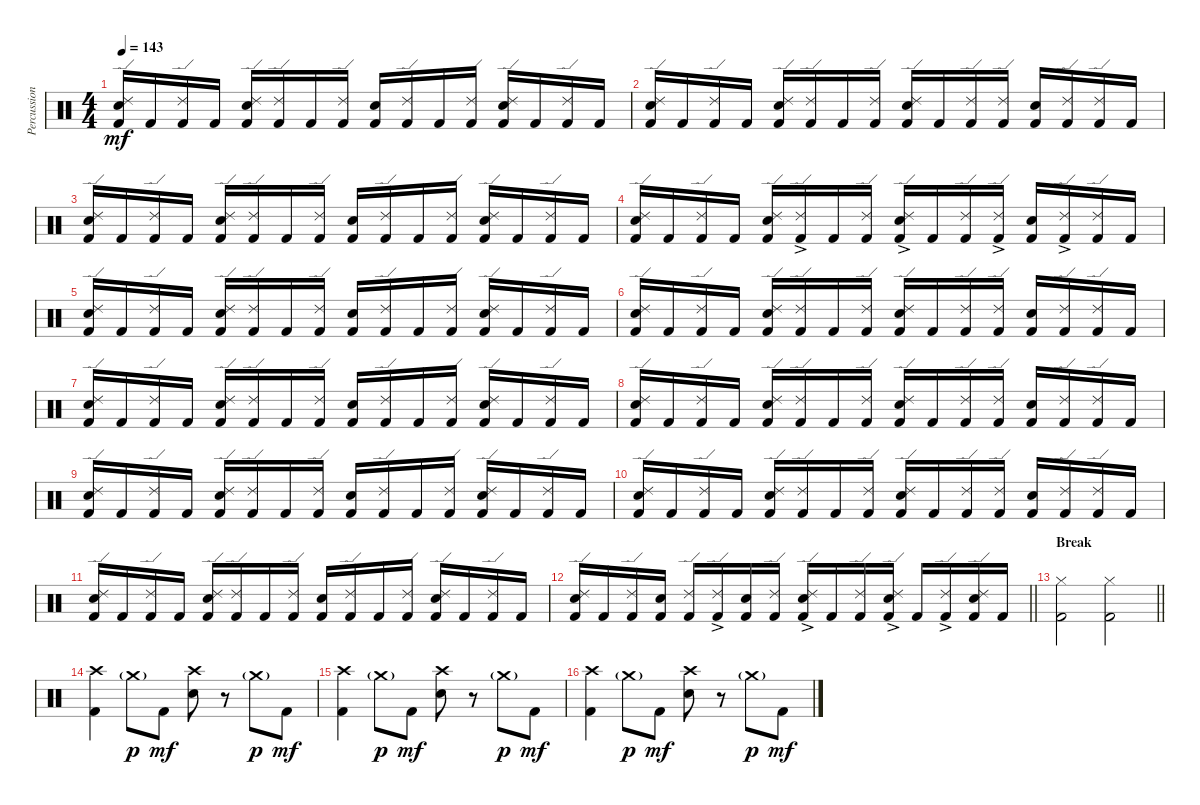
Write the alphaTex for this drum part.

\track ("Percussion" "Percussion") {instrument percussion}
\staff {score}
\articulation defaults
\ts (4 4)
\tempo 143
\clef neutral
\ks c
("Ride (edge) 2" "Electric Snare (hit)" "Kick (hit) 2").16{dy mf} "Kick (hit) 2".16 ("Ride (edge) 2" "Kick (hit) 2").16 "Kick (hit) 2".16 ("Ride (edge) 2" "Electric Snare (hit)" "Kick (hit) 2").16 ("Ride (edge) 2" "Kick (hit) 2").16 "Kick (hit) 2".16 ("Ride (edge) 2" "Kick (hit) 2").16 ("Electric Snare (hit)" "Kick (hit) 2").16 ("Ride (edge) 2" "Kick (hit) 2").16 "Kick (hit) 2".16 ("Ride (edge) 2" "Kick (hit) 2").16 ("Ride (edge) 2" "Electric Snare (hit)" "Kick (hit) 2").16 "Kick (hit) 2".16 ("Ride (edge) 2" "Kick (hit) 2").16 "Kick (hit) 2".16 |
("Ride (edge) 2" "Electric Snare (hit)" "Kick (hit) 2").16 "Kick (hit) 2".16 ("Ride (edge) 2" "Kick (hit) 2").16 "Kick (hit) 2".16 ("Ride (edge) 2" "Electric Snare (hit)" "Kick (hit) 2").16 ("Ride (edge) 2" "Kick (hit) 2").16 "Kick (hit) 2".16 ("Ride (edge) 2" "Kick (hit) 2").16 ("Ride (edge) 2" "Electric Snare (hit)" "Kick (hit) 2").16 "Kick (hit) 2".16 ("Ride (edge) 2" "Kick (hit) 2").16 ("Ride (edge) 2" "Kick (hit) 2").16 ("Electric Snare (hit)" "Kick (hit) 2").16 ("Ride (edge) 2" "Kick (hit) 2").16 ("Ride (edge) 2" "Kick (hit) 2").16 "Kick (hit) 2".16 |
("Ride (edge) 2" "Electric Snare (hit)" "Kick (hit) 2").16 "Kick (hit) 2".16 ("Ride (edge) 2" "Kick (hit) 2").16 "Kick (hit) 2".16 ("Ride (edge) 2" "Electric Snare (hit)" "Kick (hit) 2").16 ("Ride (edge) 2" "Kick (hit) 2").16 "Kick (hit) 2".16 ("Ride (edge) 2" "Kick (hit) 2").16 ("Electric Snare (hit)" "Kick (hit) 2").16 ("Ride (edge) 2" "Kick (hit) 2").16 "Kick (hit) 2".16 ("Ride (edge) 2" "Kick (hit) 2").16 ("Ride (edge) 2" "Electric Snare (hit)" "Kick (hit) 2").16 "Kick (hit) 2".16 ("Ride (edge) 2" "Kick (hit) 2").16 "Kick (hit) 2".16 |
("Ride (edge) 2" "Electric Snare (hit)" "Kick (hit) 2").16 "Kick (hit) 2".16 ("Ride (edge) 2" "Kick (hit) 2").16 "Kick (hit) 2".16 ("Ride (edge) 2" "Electric Snare (hit)" "Kick (hit) 2").16 ("Ride (edge) 2"{ac} "Kick (hit) 2").16 "Kick (hit) 2".16 ("Ride (edge) 2" "Kick (hit) 2").16 ("Ride (edge) 2"{ac} "Electric Snare (hit)" "Kick (hit) 2").16 "Kick (hit) 2".16 ("Ride (edge) 2" "Kick (hit) 2").16 ("Ride (edge) 2"{ac} "Kick (hit) 2").16 ("Electric Snare (hit)" "Kick (hit) 2").16 ("Ride (edge) 2"{ac} "Kick (hit) 2").16 ("Ride (edge) 2" "Kick (hit) 2").16 "Kick (hit) 2".16 |
("Ride (edge) 2" "Electric Snare (hit)" "Kick (hit) 2").16 "Kick (hit) 2".16 ("Ride (edge) 2" "Kick (hit) 2").16 "Kick (hit) 2".16 ("Ride (edge) 2" "Electric Snare (hit)" "Kick (hit) 2").16 ("Ride (edge) 2" "Kick (hit) 2").16 "Kick (hit) 2".16 ("Ride (edge) 2" "Kick (hit) 2").16 ("Electric Snare (hit)" "Kick (hit) 2").16 ("Ride (edge) 2" "Kick (hit) 2").16 "Kick (hit) 2".16 ("Ride (edge) 2" "Kick (hit) 2").16 ("Ride (edge) 2" "Electric Snare (hit)" "Kick (hit) 2").16 "Kick (hit) 2".16 ("Ride (edge) 2" "Kick (hit) 2").16 "Kick (hit) 2".16 |
("Ride (edge) 2" "Electric Snare (hit)" "Kick (hit) 2").16 "Kick (hit) 2".16 ("Ride (edge) 2" "Kick (hit) 2").16 "Kick (hit) 2".16 ("Ride (edge) 2" "Electric Snare (hit)" "Kick (hit) 2").16 ("Ride (edge) 2" "Kick (hit) 2").16 "Kick (hit) 2".16 ("Ride (edge) 2" "Kick (hit) 2").16 ("Ride (edge) 2" "Electric Snare (hit)" "Kick (hit) 2").16 "Kick (hit) 2".16 ("Ride (edge) 2" "Kick (hit) 2").16 ("Ride (edge) 2" "Kick (hit) 2").16 ("Electric Snare (hit)" "Kick (hit) 2").16 ("Ride (edge) 2" "Kick (hit) 2").16 ("Ride (edge) 2" "Kick (hit) 2").16 "Kick (hit) 2".16 |
("Ride (edge) 2" "Electric Snare (hit)" "Kick (hit) 2").16 "Kick (hit) 2".16 ("Ride (edge) 2" "Kick (hit) 2").16 "Kick (hit) 2".16 ("Ride (edge) 2" "Electric Snare (hit)" "Kick (hit) 2").16 ("Ride (edge) 2" "Kick (hit) 2").16 "Kick (hit) 2".16 ("Ride (edge) 2" "Kick (hit) 2").16 ("Electric Snare (hit)" "Kick (hit) 2").16 ("Ride (edge) 2" "Kick (hit) 2").16 "Kick (hit) 2".16 ("Ride (edge) 2" "Kick (hit) 2").16 ("Ride (edge) 2" "Electric Snare (hit)" "Kick (hit) 2").16 "Kick (hit) 2".16 ("Ride (edge) 2" "Kick (hit) 2").16 "Kick (hit) 2".16 |
("Ride (edge) 2" "Electric Snare (hit)" "Kick (hit) 2").16 "Kick (hit) 2".16 ("Ride (edge) 2" "Kick (hit) 2").16 "Kick (hit) 2".16 ("Ride (edge) 2" "Electric Snare (hit)" "Kick (hit) 2").16 ("Ride (edge) 2" "Kick (hit) 2").16 "Kick (hit) 2".16 ("Ride (edge) 2" "Kick (hit) 2").16 ("Ride (edge) 2" "Electric Snare (hit)" "Kick (hit) 2").16 "Kick (hit) 2".16 ("Ride (edge) 2" "Kick (hit) 2").16 ("Ride (edge) 2" "Kick (hit) 2").16 ("Electric Snare (hit)" "Kick (hit) 2").16 ("Ride (edge) 2" "Kick (hit) 2").16 ("Ride (edge) 2" "Kick (hit) 2").16 "Kick (hit) 2".16 |
("Ride (edge) 2" "Electric Snare (hit)" "Kick (hit) 2").16 "Kick (hit) 2".16 ("Ride (edge) 2" "Kick (hit) 2").16 "Kick (hit) 2".16 ("Ride (edge) 2" "Electric Snare (hit)" "Kick (hit) 2").16 ("Ride (edge) 2" "Kick (hit) 2").16 "Kick (hit) 2".16 ("Ride (edge) 2" "Kick (hit) 2").16 ("Electric Snare (hit)" "Kick (hit) 2").16 ("Ride (edge) 2" "Kick (hit) 2").16 "Kick (hit) 2".16 ("Ride (edge) 2" "Kick (hit) 2").16 ("Ride (edge) 2" "Electric Snare (hit)" "Kick (hit) 2").16 "Kick (hit) 2".16 ("Ride (edge) 2" "Kick (hit) 2").16 "Kick (hit) 2".16 |
("Ride (edge) 2" "Electric Snare (hit)" "Kick (hit) 2").16 "Kick (hit) 2".16 ("Ride (edge) 2" "Kick (hit) 2").16 "Kick (hit) 2".16 ("Ride (edge) 2" "Electric Snare (hit)" "Kick (hit) 2").16 ("Ride (edge) 2" "Kick (hit) 2").16 "Kick (hit) 2".16 ("Ride (edge) 2" "Kick (hit) 2").16 ("Ride (edge) 2" "Electric Snare (hit)" "Kick (hit) 2").16 "Kick (hit) 2".16 ("Ride (edge) 2" "Kick (hit) 2").16 ("Ride (edge) 2" "Kick (hit) 2").16 ("Electric Snare (hit)" "Kick (hit) 2").16 ("Ride (edge) 2" "Kick (hit) 2").16 ("Ride (edge) 2" "Kick (hit) 2").16 "Kick (hit) 2".16 |
("Ride (edge) 2" "Electric Snare (hit)" "Kick (hit) 2").16 "Kick (hit) 2".16 ("Ride (edge) 2" "Kick (hit) 2").16 "Kick (hit) 2".16 ("Ride (edge) 2" "Electric Snare (hit)" "Kick (hit) 2").16 ("Ride (edge) 2" "Kick (hit) 2").16 "Kick (hit) 2".16 ("Ride (edge) 2" "Kick (hit) 2").16 ("Electric Snare (hit)" "Kick (hit) 2").16 ("Ride (edge) 2" "Kick (hit) 2").16 "Kick (hit) 2".16 ("Ride (edge) 2" "Kick (hit) 2").16 ("Ride (edge) 2" "Electric Snare (hit)" "Kick (hit) 2").16 "Kick (hit) 2".16 ("Ride (edge) 2" "Kick (hit) 2").16 "Kick (hit) 2".16 |
\barLineRight lightlight
("Ride (edge) 2" "Electric Snare (hit)" "Kick (hit) 2").16 "Kick (hit) 2".16 ("Ride (edge) 2" "Kick (hit) 2").16 ("Electric Snare (hit)" "Kick (hit) 2").16 ("Ride (edge) 2" "Kick (hit) 2").16 ("Ride (edge) 2"{ac} "Kick (hit) 2").16 ("Electric Snare (hit)" "Kick (hit) 2").16 ("Ride (edge) 2" "Kick (hit) 2").16 ("Ride (edge) 2"{ac} "Electric Snare (hit)" "Kick (hit) 2").16 "Kick (hit) 2".16 ("Ride (edge) 2" "Kick (hit) 2").16 ("Ride (edge) 2"{ac} "Electric Snare (hit)" "Kick (hit) 2").16 "Kick (hit) 2".16 ("Ride (edge) 2"{ac} "Kick (hit) 2").16 ("Ride (edge) 2" "Electric Snare (hit)" "Kick (hit) 2").16 "Kick (hit) 2".16 |
\section ("" "Break")
\barLineRight lightlight
("Hi-Hat (closed)" "Kick (hit) 2").2 ("Hi-Hat (closed)" "Kick (hit) 2").2 |
("Crash high (hit)" "Kick (hit) 2").4 "Crash medium (hit)"{g}.8{dy p} "Kick (hit) 2".8{dy mf} ("Crash high (hit)" "Electric Snare (hit)").8 r.8 "Crash medium (hit)"{g}.8{dy p} "Kick (hit) 2".8{dy mf} |
("Crash high (hit)" "Kick (hit) 2").4 "Crash medium (hit)"{g}.8{dy p} "Kick (hit) 2".8{dy mf} ("Crash high (hit)" "Electric Snare (hit)").8 r.8 "Crash medium (hit)"{g}.8{dy p} "Kick (hit) 2".8{dy mf} |
("Crash high (hit)" "Kick (hit) 2").4 "Crash medium (hit)"{g}.8{dy p} "Kick (hit) 2".8{dy mf} ("Crash high (hit)" "Electric Snare (hit)").8 r.8 "Crash medium (hit)"{g}.8{dy p} "Kick (hit) 2".8{dy mf}
